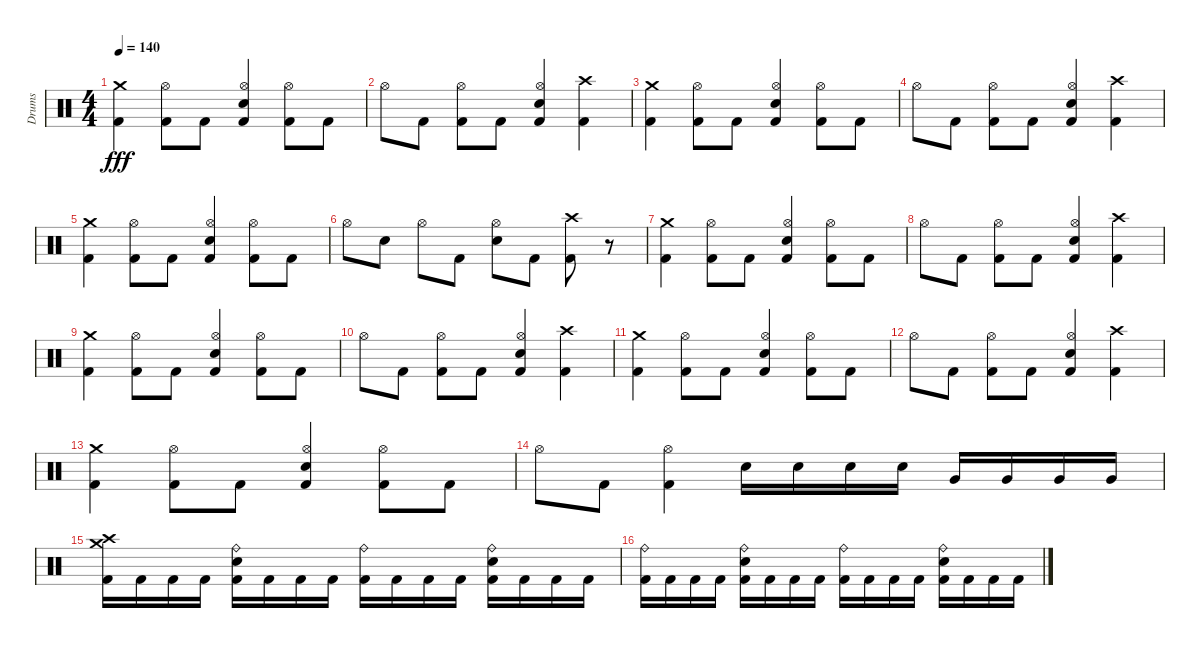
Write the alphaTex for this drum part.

\track ("Drums" "Drums") {instrument percussion}
\staff {score}
\articulation defaults
\ts (4 4)
\tempo 140
\clef neutral
\ks c
("Kick (hit) 2" "Crash medium (hit)").4{dy fff} ("Kick (hit) 2" "Hi-Hat (open)").8 "Kick (hit) 2".8 ("Kick (hit) 2" "Electric Snare (hit)" "Hi-Hat (open)").4 ("Kick (hit) 2" "Hi-Hat (open)").8 "Kick (hit) 2".8 |
"Hi-Hat (open)".8 "Kick (hit) 2".8 ("Kick (hit) 2" "Hi-Hat (open)").8 "Kick (hit) 2".8 ("Kick (hit) 2" "Electric Snare (hit)" "Hi-Hat (open)").4 ("Kick (hit) 2" "Crash high (hit)").4 |
("Kick (hit) 2" "Crash medium (hit)").4 ("Kick (hit) 2" "Hi-Hat (open)").8 "Kick (hit) 2".8 ("Kick (hit) 2" "Electric Snare (hit)" "Hi-Hat (open)").4 ("Kick (hit) 2" "Hi-Hat (open)").8 "Kick (hit) 2".8 |
"Hi-Hat (open)".8 "Kick (hit) 2".8 ("Kick (hit) 2" "Hi-Hat (open)").8 "Kick (hit) 2".8 ("Kick (hit) 2" "Electric Snare (hit)" "Hi-Hat (open)").4 ("Kick (hit) 2" "Crash high (hit)").4 |
("Kick (hit) 2" "Crash medium (hit)").4 ("Kick (hit) 2" "Hi-Hat (open)").8 "Kick (hit) 2".8 ("Kick (hit) 2" "Electric Snare (hit)" "Hi-Hat (open)").4 ("Kick (hit) 2" "Hi-Hat (open)").8 "Kick (hit) 2".8 |
"Hi-Hat (open)".8 "Electric Snare (hit)".8 "Hi-Hat (open)".8 "Kick (hit) 2".8 ("Electric Snare (hit)" "Hi-Hat (open)").8 "Kick (hit) 2".8 ("Kick (hit) 2" "Crash high (hit)").8 r.8 |
("Kick (hit) 2" "Crash medium (hit)").4 ("Kick (hit) 2" "Hi-Hat (open)").8 "Kick (hit) 2".8 ("Kick (hit) 2" "Electric Snare (hit)" "Hi-Hat (open)").4 ("Kick (hit) 2" "Hi-Hat (open)").8 "Kick (hit) 2".8 |
"Hi-Hat (open)".8 "Kick (hit) 2".8 ("Kick (hit) 2" "Hi-Hat (open)").8 "Kick (hit) 2".8 ("Kick (hit) 2" "Electric Snare (hit)" "Hi-Hat (open)").4 ("Kick (hit) 2" "Crash high (hit)").4 |
("Kick (hit) 2" "Crash medium (hit)").4 ("Kick (hit) 2" "Hi-Hat (open)").8 "Kick (hit) 2".8 ("Kick (hit) 2" "Electric Snare (hit)" "Hi-Hat (open)").4 ("Kick (hit) 2" "Hi-Hat (open)").8 "Kick (hit) 2".8 |
"Hi-Hat (open)".8 "Kick (hit) 2".8 ("Kick (hit) 2" "Hi-Hat (open)").8 "Kick (hit) 2".8 ("Kick (hit) 2" "Electric Snare (hit)" "Hi-Hat (open)").4 ("Kick (hit) 2" "Crash high (hit)").4 |
("Kick (hit) 2" "Crash medium (hit)").4 ("Kick (hit) 2" "Hi-Hat (open)").8 "Kick (hit) 2".8 ("Kick (hit) 2" "Electric Snare (hit)" "Hi-Hat (open)").4 ("Kick (hit) 2" "Hi-Hat (open)").8 "Kick (hit) 2".8 |
"Hi-Hat (open)".8 "Kick (hit) 2".8 ("Kick (hit) 2" "Hi-Hat (open)").8 "Kick (hit) 2".8 ("Kick (hit) 2" "Electric Snare (hit)" "Hi-Hat (open)").4 ("Kick (hit) 2" "Crash high (hit)").4 |
("Kick (hit) 2" "Crash medium (hit)").4 ("Kick (hit) 2" "Hi-Hat (open)").8 "Kick (hit) 2".8 ("Kick (hit) 2" "Electric Snare (hit)" "Hi-Hat (open)").4 ("Kick (hit) 2" "Hi-Hat (open)").8 "Kick (hit) 2".8 |
"Hi-Hat (open)".8 "Kick (hit) 2".8 ("Kick (hit) 2" "Hi-Hat (open)").4 "Electric Snare (hit)".16 "Electric Snare (hit)".16 "Electric Snare (hit)".16 "Electric Snare (hit)".16 "Very Low Tom (hit)".16 "Very Low Tom (hit)".16 "Very Low Tom (hit)".16 "Very Low Tom (hit)".16 |
("Kick (hit) 2" "Crash high (hit)" "Crash medium (hit)").16 "Kick (hit) 2".16 "Kick (hit) 2".16 "Kick (hit) 2".16 ("Kick (hit) 2" "Electric Snare (hit)" "Ride (bell)").16 "Kick (hit) 2".16 "Kick (hit) 2".16 "Kick (hit) 2".16 ("Kick (hit) 2" "Ride (bell)").16 "Kick (hit) 2".16 "Kick (hit) 2".16 "Kick (hit) 2".16 ("Kick (hit) 2" "Electric Snare (hit)" "Ride (bell)").16 "Kick (hit) 2".16 "Kick (hit) 2".16 "Kick (hit) 2".16 |
("Kick (hit) 2" "Ride (bell)").16 "Kick (hit) 2".16 "Kick (hit) 2".16 "Kick (hit) 2".16 ("Kick (hit) 2" "Electric Snare (hit)" "Ride (bell)").16 "Kick (hit) 2".16 "Kick (hit) 2".16 "Kick (hit) 2".16 ("Kick (hit) 2" "Ride (bell)").16 "Kick (hit) 2".16 "Kick (hit) 2".16 "Kick (hit) 2".16 ("Kick (hit) 2" "Electric Snare (hit)" "Ride (bell)").16 "Kick (hit) 2".16 "Kick (hit) 2".16 "Kick (hit) 2".16
